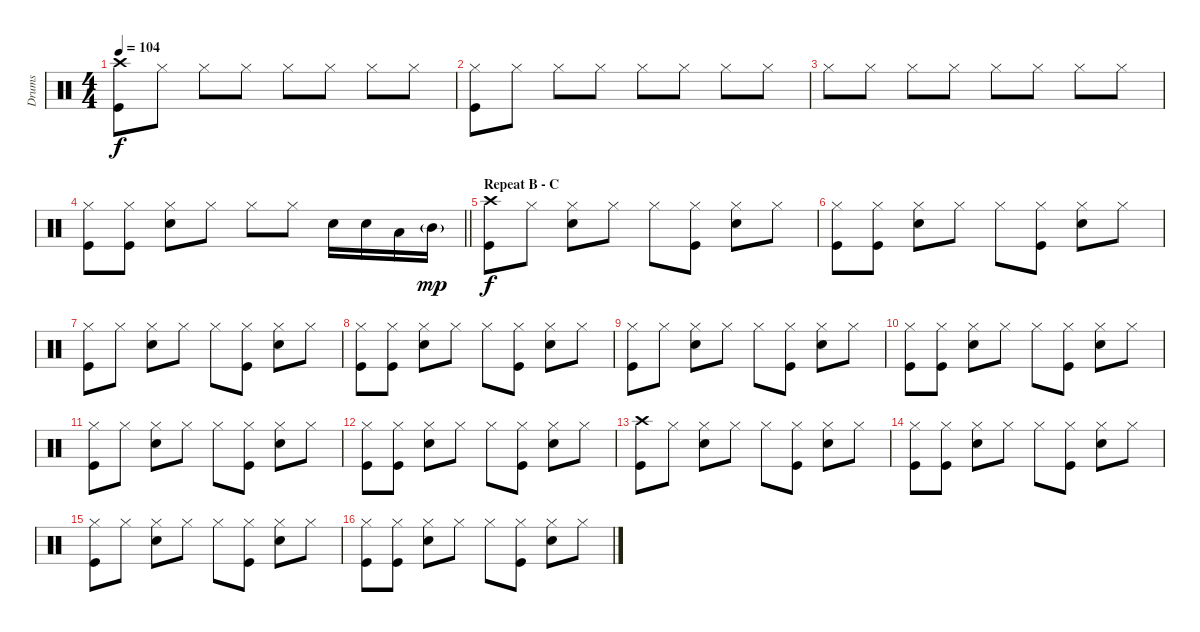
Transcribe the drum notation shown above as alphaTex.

\track ("Drums" "Drums") {instrument percussion}
\staff {score}
\articulation defaults
\ts (4 4)
\tempo 104
\clef neutral
\ks c
("Crash high (hit)" "Kick (hit)").8{dy f} "Hi-Hat (closed)".8 "Hi-Hat (closed)".8 "Hi-Hat (closed)".8 "Hi-Hat (closed)".8 "Hi-Hat (closed)".8 "Hi-Hat (closed)".8 "Hi-Hat (closed)".8 |
("Hi-Hat (closed)" "Kick (hit)").8 "Hi-Hat (closed)".8 "Hi-Hat (closed)".8 "Hi-Hat (closed)".8 "Hi-Hat (closed)".8 "Hi-Hat (closed)".8 "Hi-Hat (closed)".8 "Hi-Hat (closed)".8 |
"Hi-Hat (closed)".8 "Hi-Hat (closed)".8 "Hi-Hat (closed)".8 "Hi-Hat (closed)".8 "Hi-Hat (closed)".8 "Hi-Hat (closed)".8 "Hi-Hat (closed)".8 "Hi-Hat (closed)".8 |
\barLineRight lightlight
("Hi-Hat (closed)" "Kick (hit)").8 ("Hi-Hat (closed)" "Kick (hit)").8 ("Hi-Hat (closed)" "Electric Snare (hit)").8 "Hi-Hat (closed)".8 "Hi-Hat (closed)".8 "Hi-Hat (closed)".8 "Electric Snare (hit)".16 "Electric Snare (hit)".16 "Low Tom (hit)".16 "Mid Tom (hit)"{g}.16{dy mp} |
\section ("" "Repeat B - C")
("Crash high (hit)" "Kick (hit)").8{dy f} "Hi-Hat (closed)".8 ("Hi-Hat (closed)" "Electric Snare (hit)").8 "Hi-Hat (closed)".8 "Hi-Hat (closed)".8 ("Hi-Hat (closed)" "Kick (hit)").8 ("Hi-Hat (closed)" "Electric Snare (hit)").8 "Hi-Hat (closed)".8 |
("Hi-Hat (closed)" "Kick (hit)").8 ("Hi-Hat (closed)" "Kick (hit)").8 ("Hi-Hat (closed)" "Electric Snare (hit)").8 "Hi-Hat (closed)".8 "Hi-Hat (closed)".8 ("Hi-Hat (closed)" "Kick (hit)").8 ("Hi-Hat (closed)" "Electric Snare (hit)").8 "Hi-Hat (closed)".8 |
("Hi-Hat (closed)" "Kick (hit)").8 "Hi-Hat (closed)".8 ("Hi-Hat (closed)" "Electric Snare (hit)").8 "Hi-Hat (closed)".8 "Hi-Hat (closed)".8 ("Hi-Hat (closed)" "Kick (hit)").8 ("Hi-Hat (closed)" "Electric Snare (hit)").8 "Hi-Hat (closed)".8 |
("Hi-Hat (closed)" "Kick (hit)").8 ("Hi-Hat (closed)" "Kick (hit)").8 ("Hi-Hat (closed)" "Electric Snare (hit)").8 "Hi-Hat (closed)".8 "Hi-Hat (closed)".8 ("Hi-Hat (closed)" "Kick (hit)").8 ("Hi-Hat (closed)" "Electric Snare (hit)").8 "Hi-Hat (closed)".8 |
("Hi-Hat (closed)" "Kick (hit)").8 "Hi-Hat (closed)".8 ("Hi-Hat (closed)" "Electric Snare (hit)").8 "Hi-Hat (closed)".8 "Hi-Hat (closed)".8 ("Hi-Hat (closed)" "Kick (hit)").8 ("Hi-Hat (closed)" "Electric Snare (hit)").8 "Hi-Hat (closed)".8 |
("Hi-Hat (closed)" "Kick (hit)").8 ("Hi-Hat (closed)" "Kick (hit)").8 ("Hi-Hat (closed)" "Electric Snare (hit)").8 "Hi-Hat (closed)".8 "Hi-Hat (closed)".8 ("Hi-Hat (closed)" "Kick (hit)").8 ("Hi-Hat (closed)" "Electric Snare (hit)").8 "Hi-Hat (closed)".8 |
("Hi-Hat (closed)" "Kick (hit)").8 "Hi-Hat (closed)".8 ("Hi-Hat (closed)" "Electric Snare (hit)").8 "Hi-Hat (closed)".8 "Hi-Hat (closed)".8 ("Hi-Hat (closed)" "Kick (hit)").8 ("Hi-Hat (closed)" "Electric Snare (hit)").8 "Hi-Hat (closed)".8 |
("Hi-Hat (closed)" "Kick (hit)").8 ("Hi-Hat (closed)" "Kick (hit)").8 ("Hi-Hat (closed)" "Electric Snare (hit)").8 "Hi-Hat (closed)".8 "Hi-Hat (closed)".8 ("Hi-Hat (closed)" "Kick (hit)").8 ("Hi-Hat (closed)" "Electric Snare (hit)").8 "Hi-Hat (closed)".8 |
("Crash high (hit)" "Kick (hit)").8 "Hi-Hat (closed)".8 ("Hi-Hat (closed)" "Electric Snare (hit)").8 "Hi-Hat (closed)".8 "Hi-Hat (closed)".8 ("Hi-Hat (closed)" "Kick (hit)").8 ("Hi-Hat (closed)" "Electric Snare (hit)").8 "Hi-Hat (closed)".8 |
("Hi-Hat (closed)" "Kick (hit)").8 ("Hi-Hat (closed)" "Kick (hit)").8 ("Hi-Hat (closed)" "Electric Snare (hit)").8 "Hi-Hat (closed)".8 "Hi-Hat (closed)".8 ("Hi-Hat (closed)" "Kick (hit)").8 ("Hi-Hat (closed)" "Electric Snare (hit)").8 "Hi-Hat (closed)".8 |
("Hi-Hat (closed)" "Kick (hit)").8 "Hi-Hat (closed)".8 ("Hi-Hat (closed)" "Electric Snare (hit)").8 "Hi-Hat (closed)".8 "Hi-Hat (closed)".8 ("Hi-Hat (closed)" "Kick (hit)").8 ("Hi-Hat (closed)" "Electric Snare (hit)").8 "Hi-Hat (closed)".8 |
("Hi-Hat (closed)" "Kick (hit)").8 ("Hi-Hat (closed)" "Kick (hit)").8 ("Hi-Hat (closed)" "Electric Snare (hit)").8 "Hi-Hat (closed)".8 "Hi-Hat (closed)".8 ("Hi-Hat (closed)" "Kick (hit)").8 ("Hi-Hat (closed)" "Electric Snare (hit)").8 "Hi-Hat (closed)".8
